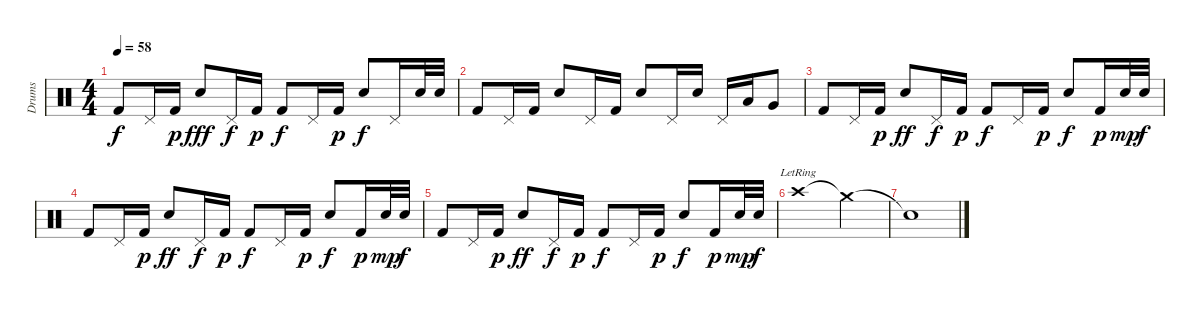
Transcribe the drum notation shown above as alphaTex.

\track ("Drums " "Drums ") {instrument percussion}
\staff {score}
\articulation defaults
\ts (4 4)
\tempo 58
\clef neutral
\ks c "Kick (hit) 2".8{dy f} "Pedal Hi-Hat (hit)".16 "Kick (hit) 2".16{dy p} "Electric Snare (hit)".8{dy fff} "Pedal Hi-Hat (hit)".16{dy f} "Kick (hit) 2".16{dy p} "Kick (hit) 2".8{dy f} "Pedal Hi-Hat (hit)".16 "Kick (hit) 2".16{dy p} "Electric Snare (hit)".8{dy f} "Pedal Hi-Hat (hit)".16 "Electric Snare (hit)".32 "Electric Snare (hit)".32
|
"Kick (hit) 2".8 "Pedal Hi-Hat (hit)".16 "Kick (hit) 2".16 "Electric Snare (hit)".8 "Pedal Hi-Hat (hit)".16 "Kick (hit) 2".16 "Electric Snare (hit)".8 "Pedal Hi-Hat (hit)".16 "Electric Snare (hit)".16 "Pedal Hi-Hat (hit)".16 "Low Tom (hit)".16 "Very Low Tom (hit)".8 |
"Kick (hit) 2".8 "Pedal Hi-Hat (hit)".16 "Kick (hit) 2".16{dy p} "Electric Snare (hit)".8{dy ff} "Pedal Hi-Hat (hit)".16{dy f} "Kick (hit) 2".16{dy p} "Kick (hit) 2".8{dy f} "Pedal Hi-Hat (hit)".16 "Kick (hit) 2".16{dy p} "Electric Snare (hit)".8{dy f} "Kick (hit) 2".16{dy p} "Electric Snare (hit)".32{dy mp} "Electric Snare (hit)".32{dy f} |
"Kick (hit) 2".8 "Pedal Hi-Hat (hit)".16 "Kick (hit) 2".16{dy p} "Electric Snare (hit)".8{dy ff} "Pedal Hi-Hat (hit)".16{dy f} "Kick (hit) 2".16{dy p} "Kick (hit) 2".8{dy f} "Pedal Hi-Hat (hit)".16 "Kick (hit) 2".16{dy p} "Electric Snare (hit)".8{dy f} "Kick (hit) 2".16{dy p} "Electric Snare (hit)".32{dy mp} "Electric Snare (hit)".32{dy f} |
"Kick (hit) 2".8 "Pedal Hi-Hat (hit)".16 "Kick (hit) 2".16{dy p} "Electric Snare (hit)".8{dy ff} "Pedal Hi-Hat (hit)".16{dy f} "Kick (hit) 2".16{dy p} "Kick (hit) 2".8{dy f} "Pedal Hi-Hat (hit)".16 "Kick (hit) 2".16{dy p} "Electric Snare (hit)".8{dy f} "Kick (hit) 2".16{dy p} "Electric Snare (hit)".32{dy mp} "Electric Snare (hit)".32{dy f} |
"Crash high (hit)"{lr}.1 "Crash medium (hit)"{t}.2 |
"Snare (hit)"{t}.1
